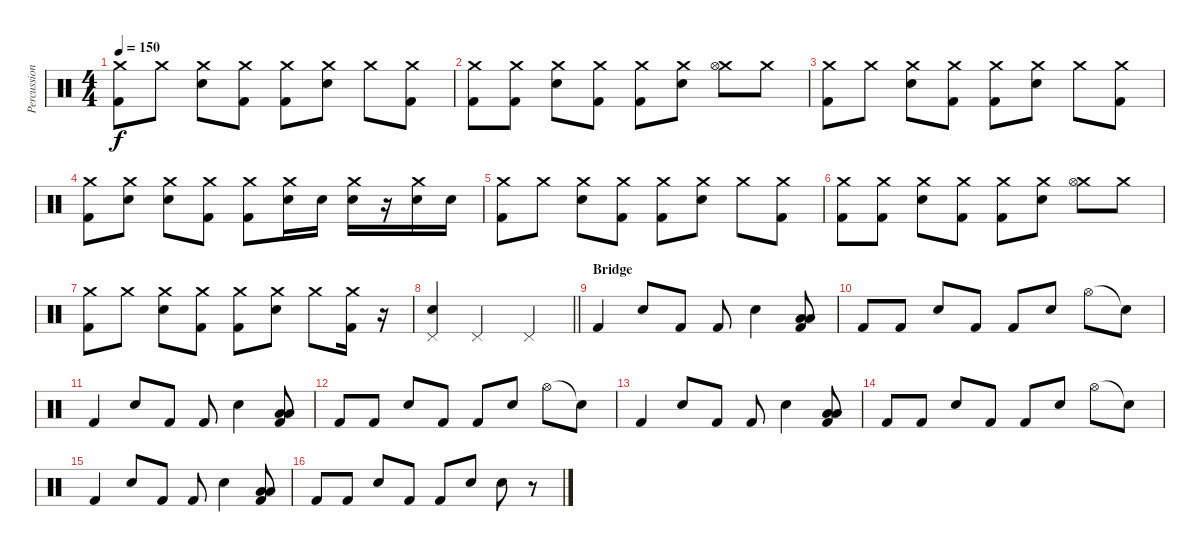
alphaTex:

\track ("Percussion" "Percussion") {instrument percussion}
\staff {score}
\articulation defaults
\ts (4 4)
\tempo 150
\clef neutral
\ks c
("Crash medium (hit)" "Kick (hit) 2").8{dy f} "Crash medium (hit)".8 ("Crash medium (hit)" "Electric Snare (hit)").8 ("Crash medium (hit)" "Kick (hit) 2").8 ("Crash medium (hit)" "Kick (hit) 2").8 ("Crash medium (hit)" "Electric Snare (hit)").8 "Crash medium (hit)".8 ("Crash medium (hit)" "Kick (hit) 2").8 |
("Crash medium (hit)" "Kick (hit) 2").8 ("Crash medium (hit)" "Kick (hit) 2").8 ("Crash medium (hit)" "Electric Snare (hit)").8 ("Crash medium (hit)" "Kick (hit) 2").8 ("Crash medium (hit)" "Kick (hit) 2").8 ("Crash medium (hit)" "Electric Snare (hit)").8 ("Crash medium (hit)" "Hi-Hat (open)").8 "Crash medium (hit)".8 |
("Crash medium (hit)" "Kick (hit) 2").8 "Crash medium (hit)".8 ("Crash medium (hit)" "Electric Snare (hit)").8 ("Crash medium (hit)" "Kick (hit) 2").8 ("Crash medium (hit)" "Kick (hit) 2").8 ("Crash medium (hit)" "Electric Snare (hit)").8 "Crash medium (hit)".8 ("Crash medium (hit)" "Kick (hit) 2").8 |
("Crash medium (hit)" "Kick (hit) 2").8 ("Crash medium (hit)" "Electric Snare (hit)").8 ("Crash medium (hit)" "Electric Snare (hit)").8 ("Crash medium (hit)" "Kick (hit) 2").8 ("Crash medium (hit)" "Kick (hit) 2").8 ("Crash medium (hit)" "Electric Snare (hit)").16 "Electric Snare (hit)".16 ("Crash medium (hit)" "Electric Snare (hit)").16 r.16 ("Crash medium (hit)" "Electric Snare (hit)").16 "Electric Snare (hit)".16 |
("Crash medium (hit)" "Kick (hit) 2").8 "Crash medium (hit)".8 ("Crash medium (hit)" "Electric Snare (hit)").8 ("Crash medium (hit)" "Kick (hit) 2").8 ("Crash medium (hit)" "Kick (hit) 2").8 ("Crash medium (hit)" "Electric Snare (hit)").8 "Crash medium (hit)".8 ("Crash medium (hit)" "Kick (hit) 2").8 |
("Crash medium (hit)" "Kick (hit) 2").8 ("Crash medium (hit)" "Kick (hit) 2").8 ("Crash medium (hit)" "Electric Snare (hit)").8 ("Crash medium (hit)" "Kick (hit) 2").8 ("Crash medium (hit)" "Kick (hit) 2").8 ("Crash medium (hit)" "Electric Snare (hit)").8 ("Crash medium (hit)" "Hi-Hat (open)").8 "Crash medium (hit)".8 |
("Crash medium (hit)" "Kick (hit) 2").8 "Crash medium (hit)".8 ("Crash medium (hit)" "Electric Snare (hit)").8 ("Crash medium (hit)" "Kick (hit) 2").8 ("Crash medium (hit)" "Kick (hit) 2").8 ("Crash medium (hit)" "Electric Snare (hit)").8 "Crash medium (hit)".8 ("Crash medium (hit)" "Kick (hit) 2").16 r.16 |
\barLineRight lightlight
("Pedal Hi-Hat (hit)" "Electric Snare (hit)").4 "Pedal Hi-Hat (hit)".2 "Pedal Hi-Hat (hit)".4 |
\section ("" "Bridge")
"Kick (hit) 2".4 "Electric Snare (hit)".8 "Kick (hit) 2".8 "Kick (hit) 2".8 "Electric Snare (hit)".4 ("Kick (hit) 2" "Low Tom (hit)" "Low Floor Tom (hit)").8 |
"Kick (hit) 2".8 "Kick (hit) 2".8 "Electric Snare (hit)".8 "Kick (hit) 2".8 "Kick (hit) 2".8 "Electric Snare (hit)".8 "Hi-Hat (open)".8 "Snare (hit)"{t}.8 |
"Kick (hit) 2".4 "Electric Snare (hit)".8 "Kick (hit) 2".8 "Kick (hit) 2".8 "Electric Snare (hit)".4 ("Kick (hit) 2" "Low Tom (hit)" "Low Floor Tom (hit)").8 |
"Kick (hit) 2".8 "Kick (hit) 2".8 "Electric Snare (hit)".8 "Kick (hit) 2".8 "Kick (hit) 2".8 "Electric Snare (hit)".8 "Hi-Hat (open)".8 "Snare (hit)"{t}.8 |
"Kick (hit) 2".4 "Electric Snare (hit)".8 "Kick (hit) 2".8 "Kick (hit) 2".8 "Electric Snare (hit)".4 ("Kick (hit) 2" "Low Tom (hit)" "Low Floor Tom (hit)").8 |
"Kick (hit) 2".8 "Kick (hit) 2".8 "Electric Snare (hit)".8 "Kick (hit) 2".8 "Kick (hit) 2".8 "Electric Snare (hit)".8 "Hi-Hat (open)".8 "Snare (hit)"{t}.8 |
"Kick (hit) 2".4 "Electric Snare (hit)".8 "Kick (hit) 2".8 "Kick (hit) 2".8 "Electric Snare (hit)".4 ("Kick (hit) 2" "Low Tom (hit)" "Low Floor Tom (hit)").8 |
"Kick (hit) 2".8 "Kick (hit) 2".8 "Electric Snare (hit)".8 "Kick (hit) 2".8 "Kick (hit) 2".8 "Electric Snare (hit)".8 "Electric Snare (hit)".8 r.8
